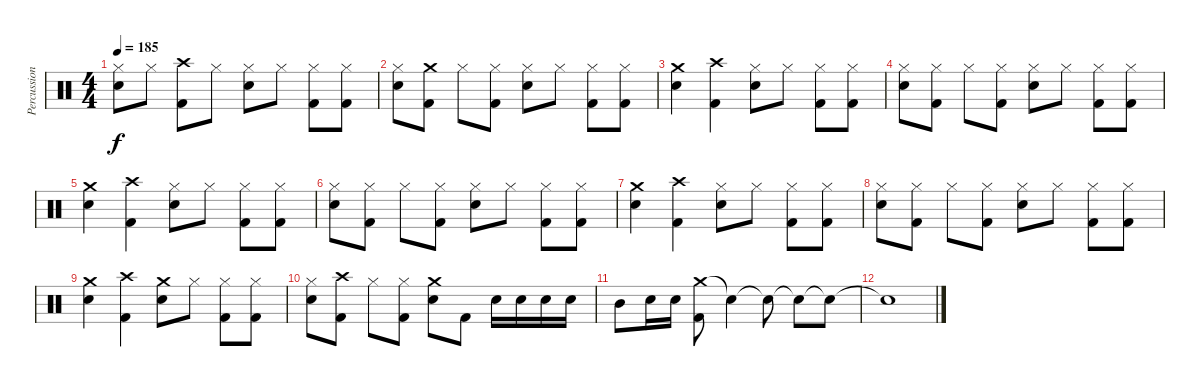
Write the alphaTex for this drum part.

\track ("Percussion" "Percussion") {instrument percussion}
\staff {score}
\articulation defaults
\ts (4 4)
\tempo 185
\clef neutral
\ks c
("Hi-Hat (closed)" "Electric Snare (hit)").8{dy f} "Hi-Hat (closed)".8 ("Crash high (hit)" "Kick (hit) 2").8 "Hi-Hat (closed)".8 ("Hi-Hat (closed)" "Electric Snare (hit)").8 "Hi-Hat (closed)".8 ("Hi-Hat (closed)" "Kick (hit) 2").8 ("Hi-Hat (closed)" "Kick (hit) 2").8 |
("Hi-Hat (closed)" "Electric Snare (hit)").8 ("Crash medium (hit)" "Kick (hit) 2").8 "Hi-Hat (closed)".8 ("Hi-Hat (closed)" "Kick (hit) 2").8 ("Hi-Hat (closed)" "Electric Snare (hit)").8 "Hi-Hat (closed)".8 ("Hi-Hat (closed)" "Kick (hit) 2").8 ("Hi-Hat (closed)" "Kick (hit) 2").8 |
("Crash medium (hit)" "Electric Snare (hit)").4 ("Crash high (hit)" "Kick (hit) 2").4 ("Hi-Hat (closed)" "Electric Snare (hit)").8 "Hi-Hat (closed)".8 ("Hi-Hat (closed)" "Kick (hit) 2").8 ("Hi-Hat (closed)" "Kick (hit) 2").8 |
("Hi-Hat (closed)" "Electric Snare (hit)").8 ("Hi-Hat (closed)" "Kick (hit) 2").8 "Hi-Hat (closed)".8 ("Hi-Hat (closed)" "Kick (hit) 2").8 ("Hi-Hat (closed)" "Electric Snare (hit)").8 "Hi-Hat (closed)".8 ("Hi-Hat (closed)" "Kick (hit) 2").8 ("Hi-Hat (closed)" "Kick (hit) 2").8 |
("Crash medium (hit)" "Electric Snare (hit)").4 ("Crash high (hit)" "Kick (hit) 2").4 ("Hi-Hat (closed)" "Electric Snare (hit)").8 "Hi-Hat (closed)".8 ("Hi-Hat (closed)" "Kick (hit) 2").8 ("Hi-Hat (closed)" "Kick (hit) 2").8 |
("Hi-Hat (closed)" "Electric Snare (hit)").8 ("Hi-Hat (closed)" "Kick (hit) 2").8 "Hi-Hat (closed)".8 ("Hi-Hat (closed)" "Kick (hit) 2").8 ("Hi-Hat (closed)" "Electric Snare (hit)").8 "Hi-Hat (closed)".8 ("Hi-Hat (closed)" "Kick (hit) 2").8 ("Hi-Hat (closed)" "Kick (hit) 2").8 |
("Crash medium (hit)" "Electric Snare (hit)").4 ("Crash high (hit)" "Kick (hit) 2").4 ("Hi-Hat (closed)" "Electric Snare (hit)").8 "Hi-Hat (closed)".8 ("Hi-Hat (closed)" "Kick (hit) 2").8 ("Hi-Hat (closed)" "Kick (hit) 2").8 |
("Hi-Hat (closed)" "Electric Snare (hit)").8 ("Hi-Hat (closed)" "Kick (hit) 2").8 "Hi-Hat (closed)".8 ("Hi-Hat (closed)" "Kick (hit) 2").8 ("Hi-Hat (closed)" "Electric Snare (hit)").8 "Hi-Hat (closed)".8 ("Hi-Hat (closed)" "Kick (hit) 2").8 ("Hi-Hat (closed)" "Kick (hit) 2").8 |
("Crash medium (hit)" "Electric Snare (hit)").4 ("Crash high (hit)" "Kick (hit) 2").4 ("Crash medium (hit)" "Electric Snare (hit)").8 "Hi-Hat (closed)".8 ("Hi-Hat (closed)" "Kick (hit) 2").8 ("Hi-Hat (closed)" "Kick (hit) 2").8 |
("Hi-Hat (closed)" "Electric Snare (hit)").8 ("Crash high (hit)" "Kick (hit) 2").8 "Hi-Hat (closed)".8 ("Hi-Hat (closed)" "Kick (hit) 2").8 ("Crash medium (hit)" "Electric Snare (hit)").8 "Kick (hit) 2".8 "Electric Snare (hit)".16 "Electric Snare (hit)".16 "Electric Snare (hit)".16 "Electric Snare (hit)".16 |
"Mid Tom (hit)".8 "Electric Snare (hit)".16 "Electric Snare (hit)".16 ("Crash medium (hit)" "Kick (hit) 2").8 "Snare (hit)"{t}.4 "Snare (hit)"{t}.8 "Snare (hit)"{t}.8 "Snare (hit)"{t}.8 |
"Snare (hit)"{t}.1
